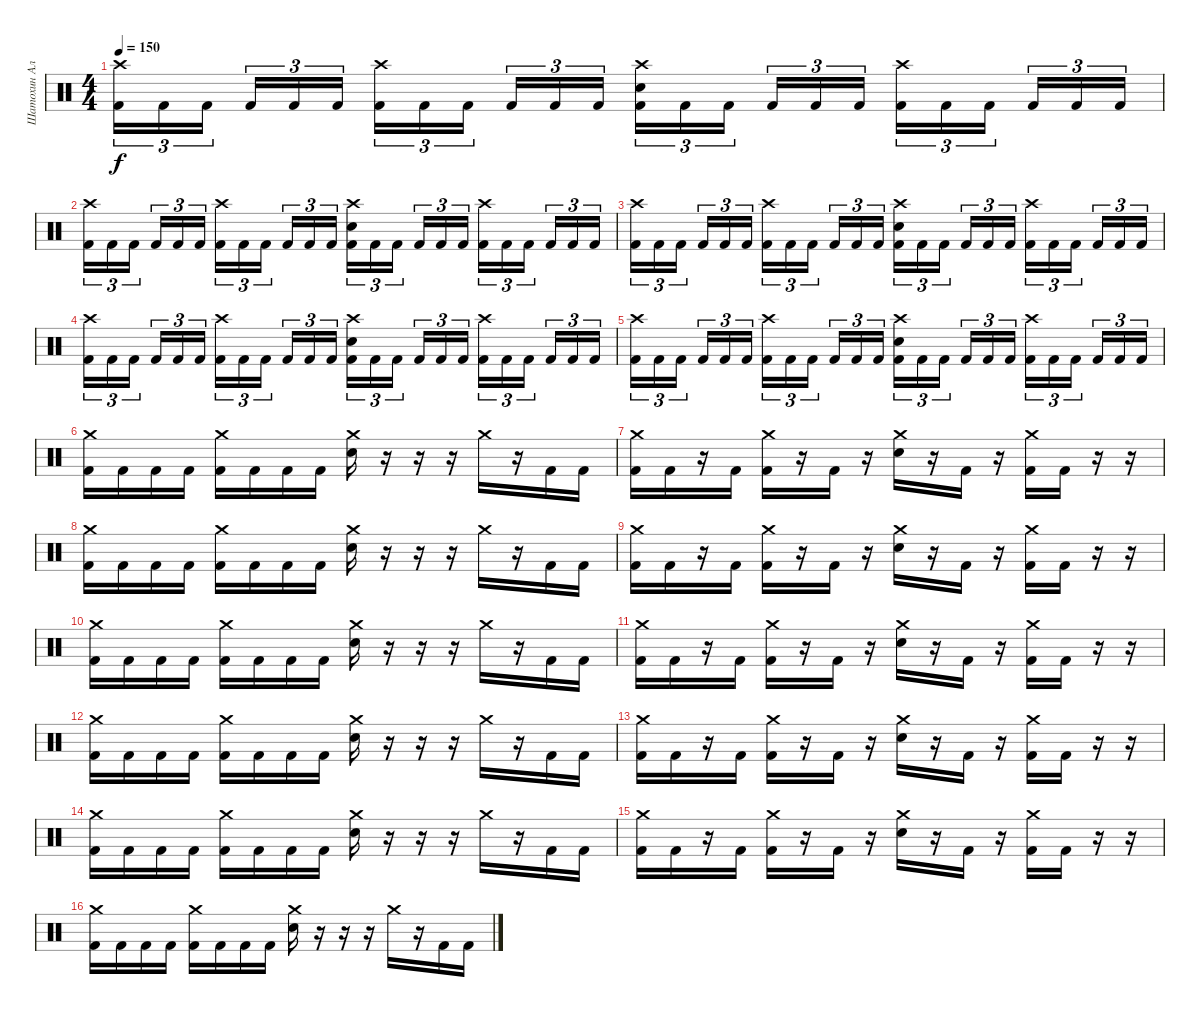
\track ("Шатохин Алексей" "Шатохин Ал") {instrument percussion}
\staff {score}
\articulation defaults
\ts (4 4)
\tempo 150
\clef neutral
\ks c
("Crash high (hit)" "Kick (hit) 2").16{tu (3 2) dy f} "Kick (hit) 2".16{tu (3 2)} "Kick (hit) 2".16{tu (3 2) beam splitsecondary} "Kick (hit) 2".16{tu (3 2)} "Kick (hit) 2".16{tu (3 2)} "Kick (hit) 2".16{tu (3 2)} ("Crash high (hit)" "Kick (hit) 2").16{tu (3 2)} "Kick (hit) 2".16{tu (3 2)} "Kick (hit) 2".16{tu (3 2) beam splitsecondary} "Kick (hit) 2".16{tu (3 2)} "Kick (hit) 2".16{tu (3 2)} "Kick (hit) 2".16{tu (3 2)} ("Crash high (hit)" "Electric Snare (hit)" "Kick (hit) 2").16{tu (3 2)} "Kick (hit) 2".16{tu (3 2)} "Kick (hit) 2".16{tu (3 2) beam splitsecondary} "Kick (hit) 2".16{tu (3 2)} "Kick (hit) 2".16{tu (3 2)} "Kick (hit) 2".16{tu (3 2)} ("Crash high (hit)" "Kick (hit) 2").16{tu (3 2)} "Kick (hit) 2".16{tu (3 2)} "Kick (hit) 2".16{tu (3 2) beam splitsecondary} "Kick (hit) 2".16{tu (3 2)} "Kick (hit) 2".16{tu (3 2)} "Kick (hit) 2".16{tu (3 2)} |
("Crash high (hit)" "Kick (hit) 2").16{tu (3 2)} "Kick (hit) 2".16{tu (3 2)} "Kick (hit) 2".16{tu (3 2) beam splitsecondary} "Kick (hit) 2".16{tu (3 2)} "Kick (hit) 2".16{tu (3 2)} "Kick (hit) 2".16{tu (3 2)} ("Crash high (hit)" "Kick (hit) 2").16{tu (3 2)} "Kick (hit) 2".16{tu (3 2)} "Kick (hit) 2".16{tu (3 2) beam splitsecondary} "Kick (hit) 2".16{tu (3 2)} "Kick (hit) 2".16{tu (3 2)} "Kick (hit) 2".16{tu (3 2)} ("Crash high (hit)" "Electric Snare (hit)" "Kick (hit) 2").16{tu (3 2)} "Kick (hit) 2".16{tu (3 2)} "Kick (hit) 2".16{tu (3 2) beam splitsecondary} "Kick (hit) 2".16{tu (3 2)} "Kick (hit) 2".16{tu (3 2)} "Kick (hit) 2".16{tu (3 2)} ("Crash high (hit)" "Kick (hit) 2").16{tu (3 2)} "Kick (hit) 2".16{tu (3 2)} "Kick (hit) 2".16{tu (3 2) beam splitsecondary} "Kick (hit) 2".16{tu (3 2)} "Kick (hit) 2".16{tu (3 2)} "Kick (hit) 2".16{tu (3 2)} |
("Crash high (hit)" "Kick (hit) 2").16{tu (3 2)} "Kick (hit) 2".16{tu (3 2)} "Kick (hit) 2".16{tu (3 2) beam splitsecondary} "Kick (hit) 2".16{tu (3 2)} "Kick (hit) 2".16{tu (3 2)} "Kick (hit) 2".16{tu (3 2)} ("Crash high (hit)" "Kick (hit) 2").16{tu (3 2)} "Kick (hit) 2".16{tu (3 2)} "Kick (hit) 2".16{tu (3 2) beam splitsecondary} "Kick (hit) 2".16{tu (3 2)} "Kick (hit) 2".16{tu (3 2)} "Kick (hit) 2".16{tu (3 2)} ("Crash high (hit)" "Electric Snare (hit)" "Kick (hit) 2").16{tu (3 2)} "Kick (hit) 2".16{tu (3 2)} "Kick (hit) 2".16{tu (3 2) beam splitsecondary} "Kick (hit) 2".16{tu (3 2)} "Kick (hit) 2".16{tu (3 2)} "Kick (hit) 2".16{tu (3 2)} ("Crash high (hit)" "Kick (hit) 2").16{tu (3 2)} "Kick (hit) 2".16{tu (3 2)} "Kick (hit) 2".16{tu (3 2) beam splitsecondary} "Kick (hit) 2".16{tu (3 2)} "Kick (hit) 2".16{tu (3 2)} "Kick (hit) 2".16{tu (3 2)} |
("Crash high (hit)" "Kick (hit) 2").16{tu (3 2)} "Kick (hit) 2".16{tu (3 2)} "Kick (hit) 2".16{tu (3 2) beam splitsecondary} "Kick (hit) 2".16{tu (3 2)} "Kick (hit) 2".16{tu (3 2)} "Kick (hit) 2".16{tu (3 2)} ("Crash high (hit)" "Kick (hit) 2").16{tu (3 2)} "Kick (hit) 2".16{tu (3 2)} "Kick (hit) 2".16{tu (3 2) beam splitsecondary} "Kick (hit) 2".16{tu (3 2)} "Kick (hit) 2".16{tu (3 2)} "Kick (hit) 2".16{tu (3 2)} ("Crash high (hit)" "Electric Snare (hit)" "Kick (hit) 2").16{tu (3 2)} "Kick (hit) 2".16{tu (3 2)} "Kick (hit) 2".16{tu (3 2) beam splitsecondary} "Kick (hit) 2".16{tu (3 2)} "Kick (hit) 2".16{tu (3 2)} "Kick (hit) 2".16{tu (3 2)} ("Crash high (hit)" "Kick (hit) 2").16{tu (3 2)} "Kick (hit) 2".16{tu (3 2)} "Kick (hit) 2".16{tu (3 2) beam splitsecondary} "Kick (hit) 2".16{tu (3 2)} "Kick (hit) 2".16{tu (3 2)} "Kick (hit) 2".16{tu (3 2)} |
("Crash high (hit)" "Kick (hit) 2").16{tu (3 2)} "Kick (hit) 2".16{tu (3 2)} "Kick (hit) 2".16{tu (3 2) beam splitsecondary} "Kick (hit) 2".16{tu (3 2)} "Kick (hit) 2".16{tu (3 2)} "Kick (hit) 2".16{tu (3 2)} ("Crash high (hit)" "Kick (hit) 2").16{tu (3 2)} "Kick (hit) 2".16{tu (3 2)} "Kick (hit) 2".16{tu (3 2) beam splitsecondary} "Kick (hit) 2".16{tu (3 2)} "Kick (hit) 2".16{tu (3 2)} "Kick (hit) 2".16{tu (3 2)} ("Crash high (hit)" "Electric Snare (hit)" "Kick (hit) 2").16{tu (3 2)} "Kick (hit) 2".16{tu (3 2)} "Kick (hit) 2".16{tu (3 2) beam splitsecondary} "Kick (hit) 2".16{tu (3 2)} "Kick (hit) 2".16{tu (3 2)} "Kick (hit) 2".16{tu (3 2)} ("Crash high (hit)" "Kick (hit) 2").16{tu (3 2)} "Kick (hit) 2".16{tu (3 2)} "Kick (hit) 2".16{tu (3 2) beam splitsecondary} "Kick (hit) 2".16{tu (3 2)} "Kick (hit) 2".16{tu (3 2)} "Kick (hit) 2".16{tu (3 2)} |
("Crash medium (hit)" "Kick (hit) 2").16 "Kick (hit) 2".16 "Kick (hit) 2".16 "Kick (hit) 2".16 ("Crash medium (hit)" "Kick (hit) 2").16 "Kick (hit) 2".16 "Kick (hit) 2".16 "Kick (hit) 2".16 ("Crash medium (hit)" "Electric Snare (hit)").16 r.16 r.16 r.16 "Crash medium (hit)".16 r.16 "Kick (hit) 2".16 "Kick (hit) 2".16 |
("Crash medium (hit)" "Kick (hit) 2").16 "Kick (hit) 2".16 r.16 "Kick (hit) 2".16 ("Crash medium (hit)" "Kick (hit) 2").16 r.16 "Kick (hit) 2".16 r.16 ("Crash medium (hit)" "Electric Snare (hit)").16 r.16 "Kick (hit) 2".16 r.16 ("Crash medium (hit)" "Kick (hit) 2").16 "Kick (hit) 2".16 r.16 r.16 |
("Crash medium (hit)" "Kick (hit) 2").16 "Kick (hit) 2".16 "Kick (hit) 2".16 "Kick (hit) 2".16 ("Crash medium (hit)" "Kick (hit) 2").16 "Kick (hit) 2".16 "Kick (hit) 2".16 "Kick (hit) 2".16 ("Crash medium (hit)" "Electric Snare (hit)").16 r.16 r.16 r.16 "Crash medium (hit)".16 r.16 "Kick (hit) 2".16 "Kick (hit) 2".16 |
("Crash medium (hit)" "Kick (hit) 2").16 "Kick (hit) 2".16 r.16 "Kick (hit) 2".16 ("Crash medium (hit)" "Kick (hit) 2").16 r.16 "Kick (hit) 2".16 r.16 ("Crash medium (hit)" "Electric Snare (hit)").16 r.16 "Kick (hit) 2".16 r.16 ("Crash medium (hit)" "Kick (hit) 2").16 "Kick (hit) 2".16 r.16 r.16 |
("Crash medium (hit)" "Kick (hit) 2").16 "Kick (hit) 2".16 "Kick (hit) 2".16 "Kick (hit) 2".16 ("Crash medium (hit)" "Kick (hit) 2").16 "Kick (hit) 2".16 "Kick (hit) 2".16 "Kick (hit) 2".16 ("Crash medium (hit)" "Electric Snare (hit)").16 r.16 r.16 r.16 "Crash medium (hit)".16 r.16 "Kick (hit) 2".16 "Kick (hit) 2".16 |
("Crash medium (hit)" "Kick (hit) 2").16 "Kick (hit) 2".16 r.16 "Kick (hit) 2".16 ("Crash medium (hit)" "Kick (hit) 2").16 r.16 "Kick (hit) 2".16 r.16 ("Crash medium (hit)" "Electric Snare (hit)").16 r.16 "Kick (hit) 2".16 r.16 ("Crash medium (hit)" "Kick (hit) 2").16 "Kick (hit) 2".16 r.16 r.16 |
("Crash medium (hit)" "Kick (hit) 2").16 "Kick (hit) 2".16 "Kick (hit) 2".16 "Kick (hit) 2".16 ("Crash medium (hit)" "Kick (hit) 2").16 "Kick (hit) 2".16 "Kick (hit) 2".16 "Kick (hit) 2".16 ("Crash medium (hit)" "Electric Snare (hit)").16 r.16 r.16 r.16 "Crash medium (hit)".16 r.16 "Kick (hit) 2".16 "Kick (hit) 2".16 |
("Crash medium (hit)" "Kick (hit) 2").16 "Kick (hit) 2".16 r.16 "Kick (hit) 2".16 ("Crash medium (hit)" "Kick (hit) 2").16 r.16 "Kick (hit) 2".16 r.16 ("Crash medium (hit)" "Electric Snare (hit)").16 r.16 "Kick (hit) 2".16 r.16 ("Crash medium (hit)" "Kick (hit) 2").16 "Kick (hit) 2".16 r.16 r.16 |
("Crash medium (hit)" "Kick (hit) 2").16 "Kick (hit) 2".16 "Kick (hit) 2".16 "Kick (hit) 2".16 ("Crash medium (hit)" "Kick (hit) 2").16 "Kick (hit) 2".16 "Kick (hit) 2".16 "Kick (hit) 2".16 ("Crash medium (hit)" "Electric Snare (hit)").16 r.16 r.16 r.16 "Crash medium (hit)".16 r.16 "Kick (hit) 2".16 "Kick (hit) 2".16 |
("Crash medium (hit)" "Kick (hit) 2").16 "Kick (hit) 2".16 r.16 "Kick (hit) 2".16 ("Crash medium (hit)" "Kick (hit) 2").16 r.16 "Kick (hit) 2".16 r.16 ("Crash medium (hit)" "Electric Snare (hit)").16 r.16 "Kick (hit) 2".16 r.16 ("Crash medium (hit)" "Kick (hit) 2").16 "Kick (hit) 2".16 r.16 r.16 |
("Crash medium (hit)" "Kick (hit) 2").16 "Kick (hit) 2".16 "Kick (hit) 2".16 "Kick (hit) 2".16 ("Crash medium (hit)" "Kick (hit) 2").16 "Kick (hit) 2".16 "Kick (hit) 2".16 "Kick (hit) 2".16 ("Crash medium (hit)" "Electric Snare (hit)").16 r.16 r.16 r.16 "Crash medium (hit)".16 r.16 "Kick (hit) 2".16 "Kick (hit) 2".16
